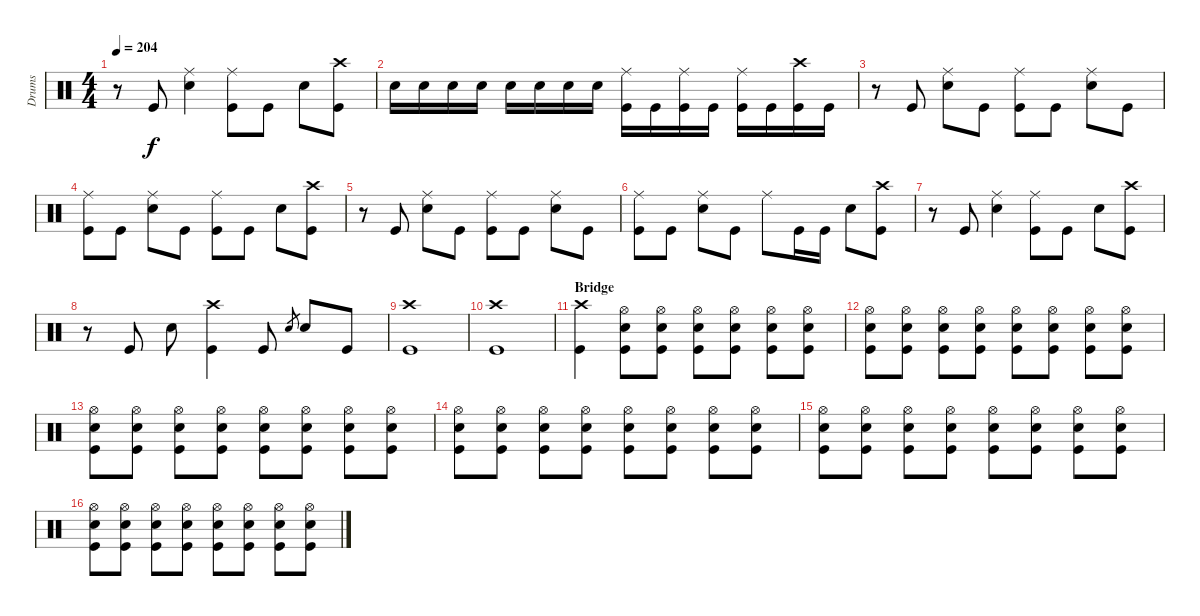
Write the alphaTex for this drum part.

\track ("Drums" "Drums") {instrument percussion}
\staff {score}
\articulation defaults
\ts (4 4)
\tempo 204
\clef neutral
\ks c
r.8{dy f} "Kick (hit)".8 ("Ride (middle)" "Snare (hit) 2").4 ("Ride (middle)" "Kick (hit)").8 "Kick (hit)".8 "Snare (hit) 2".8 ("Crash high (hit)" "Kick (hit)").8 |
"Snare (hit) 2".16 "Snare (hit) 2".16 "Snare (hit) 2".16 "Snare (hit) 2".16 "Snare (hit) 2".16 "Snare (hit) 2".16 "Snare (hit) 2".16 "Snare (hit) 2".16 ("Ride (middle)" "Kick (hit)").16 "Kick (hit)".16 ("Ride (middle)" "Kick (hit)").16 "Kick (hit)".16 ("Ride (middle)" "Kick (hit)").16 "Kick (hit)".16 ("Crash high (hit)" "Kick (hit)").16 "Kick (hit)".16 |
r.8 "Kick (hit)".8 ("Ride (middle)" "Snare (hit) 2").8 "Kick (hit)".8 ("Ride (middle)" "Kick (hit)").8 "Kick (hit)".8 ("Ride (middle)" "Snare (hit) 2").8 "Kick (hit)".8 |
("Ride (middle)" "Kick (hit)").8 "Kick (hit)".8 ("Ride (middle)" "Snare (hit) 2").8 "Kick (hit)".8 ("Ride (middle)" "Kick (hit)").8 "Kick (hit)".8 "Snare (hit) 2".8 ("Crash high (hit)" "Kick (hit)").8 |
r.8 "Kick (hit)".8 ("Ride (middle)" "Snare (hit) 2").8 "Kick (hit)".8 ("Ride (middle)" "Kick (hit)").8 "Kick (hit)".8 ("Ride (middle)" "Snare (hit) 2").8 "Kick (hit)".8 |
("Ride (middle)" "Kick (hit)").8 "Kick (hit)".8 ("Ride (middle)" "Snare (hit) 2").8 "Kick (hit)".8 "Ride (middle)".8 "Kick (hit)".16 "Kick (hit)".16 "Snare (hit) 2".8 ("Crash high (hit)" "Kick (hit)").8 |
r.8 "Kick (hit)".8 ("Ride (middle)" "Snare (hit) 2").4 ("Ride (middle)" "Kick (hit)").8 "Kick (hit)".8 "Snare (hit) 2".8 ("Crash high (hit)" "Kick (hit)").8 |
r.8 "Kick (hit)".8 "Snare (hit) 2".8 ("Crash high (hit)" "Kick (hit)").4 "Kick (hit)".8 "Snare (hit) 2".8{gr} "Snare (hit) 2".8 "Kick (hit)".8 |
("Crash high (hit)" "Kick (hit)").1 |
("Crash high (hit)" "Kick (hit)").1 |
\section ("" "Bridge")
("Crash high (hit)" "Kick (hit)").4 ("Hi-Hat (open)" "Snare (hit) 2" "Kick (hit)").8 ("Hi-Hat (open)" "Snare (hit) 2" "Kick (hit)").8 ("Hi-Hat (open)" "Snare (hit) 2" "Kick (hit)").8 ("Hi-Hat (open)" "Snare (hit) 2" "Kick (hit)").8 ("Hi-Hat (open)" "Snare (hit) 2" "Kick (hit)").8 ("Hi-Hat (open)" "Snare (hit) 2" "Kick (hit)").8 |
("Hi-Hat (open)" "Snare (hit) 2" "Kick (hit)").8 ("Hi-Hat (open)" "Snare (hit) 2" "Kick (hit)").8 ("Hi-Hat (open)" "Snare (hit) 2" "Kick (hit)").8 ("Hi-Hat (open)" "Snare (hit) 2" "Kick (hit)").8 ("Hi-Hat (open)" "Snare (hit) 2" "Kick (hit)").8 ("Hi-Hat (open)" "Snare (hit) 2" "Kick (hit)").8 ("Hi-Hat (open)" "Snare (hit) 2" "Kick (hit)").8 ("Hi-Hat (open)" "Snare (hit) 2" "Kick (hit)").8 |
("Hi-Hat (open)" "Snare (hit) 2" "Kick (hit)").8 ("Hi-Hat (open)" "Snare (hit) 2" "Kick (hit)").8 ("Hi-Hat (open)" "Snare (hit) 2" "Kick (hit)").8 ("Hi-Hat (open)" "Snare (hit) 2" "Kick (hit)").8 ("Hi-Hat (open)" "Snare (hit) 2" "Kick (hit)").8 ("Hi-Hat (open)" "Snare (hit) 2" "Kick (hit)").8 ("Hi-Hat (open)" "Snare (hit) 2" "Kick (hit)").8 ("Hi-Hat (open)" "Snare (hit) 2" "Kick (hit)").8 |
("Hi-Hat (open)" "Snare (hit) 2" "Kick (hit)").8 ("Hi-Hat (open)" "Snare (hit) 2" "Kick (hit)").8 ("Hi-Hat (open)" "Snare (hit) 2" "Kick (hit)").8 ("Hi-Hat (open)" "Snare (hit) 2" "Kick (hit)").8 ("Hi-Hat (open)" "Snare (hit) 2" "Kick (hit)").8 ("Hi-Hat (open)" "Snare (hit) 2" "Kick (hit)").8 ("Hi-Hat (open)" "Snare (hit) 2" "Kick (hit)").8 ("Hi-Hat (open)" "Snare (hit) 2" "Kick (hit)").8 |
("Hi-Hat (open)" "Snare (hit) 2" "Kick (hit)").8 ("Hi-Hat (open)" "Snare (hit) 2" "Kick (hit)").8 ("Hi-Hat (open)" "Snare (hit) 2" "Kick (hit)").8 ("Hi-Hat (open)" "Snare (hit) 2" "Kick (hit)").8 ("Hi-Hat (open)" "Snare (hit) 2" "Kick (hit)").8 ("Hi-Hat (open)" "Snare (hit) 2" "Kick (hit)").8 ("Hi-Hat (open)" "Snare (hit) 2" "Kick (hit)").8 ("Hi-Hat (open)" "Snare (hit) 2" "Kick (hit)").8 |
("Hi-Hat (open)" "Snare (hit) 2" "Kick (hit)").8 ("Hi-Hat (open)" "Snare (hit) 2" "Kick (hit)").8 ("Hi-Hat (open)" "Snare (hit) 2" "Kick (hit)").8 ("Hi-Hat (open)" "Snare (hit) 2" "Kick (hit)").8 ("Hi-Hat (open)" "Snare (hit) 2" "Kick (hit)").8 ("Hi-Hat (open)" "Snare (hit) 2" "Kick (hit)").8 ("Hi-Hat (open)" "Snare (hit) 2" "Kick (hit)").8 ("Hi-Hat (open)" "Snare (hit) 2" "Kick (hit)").8
